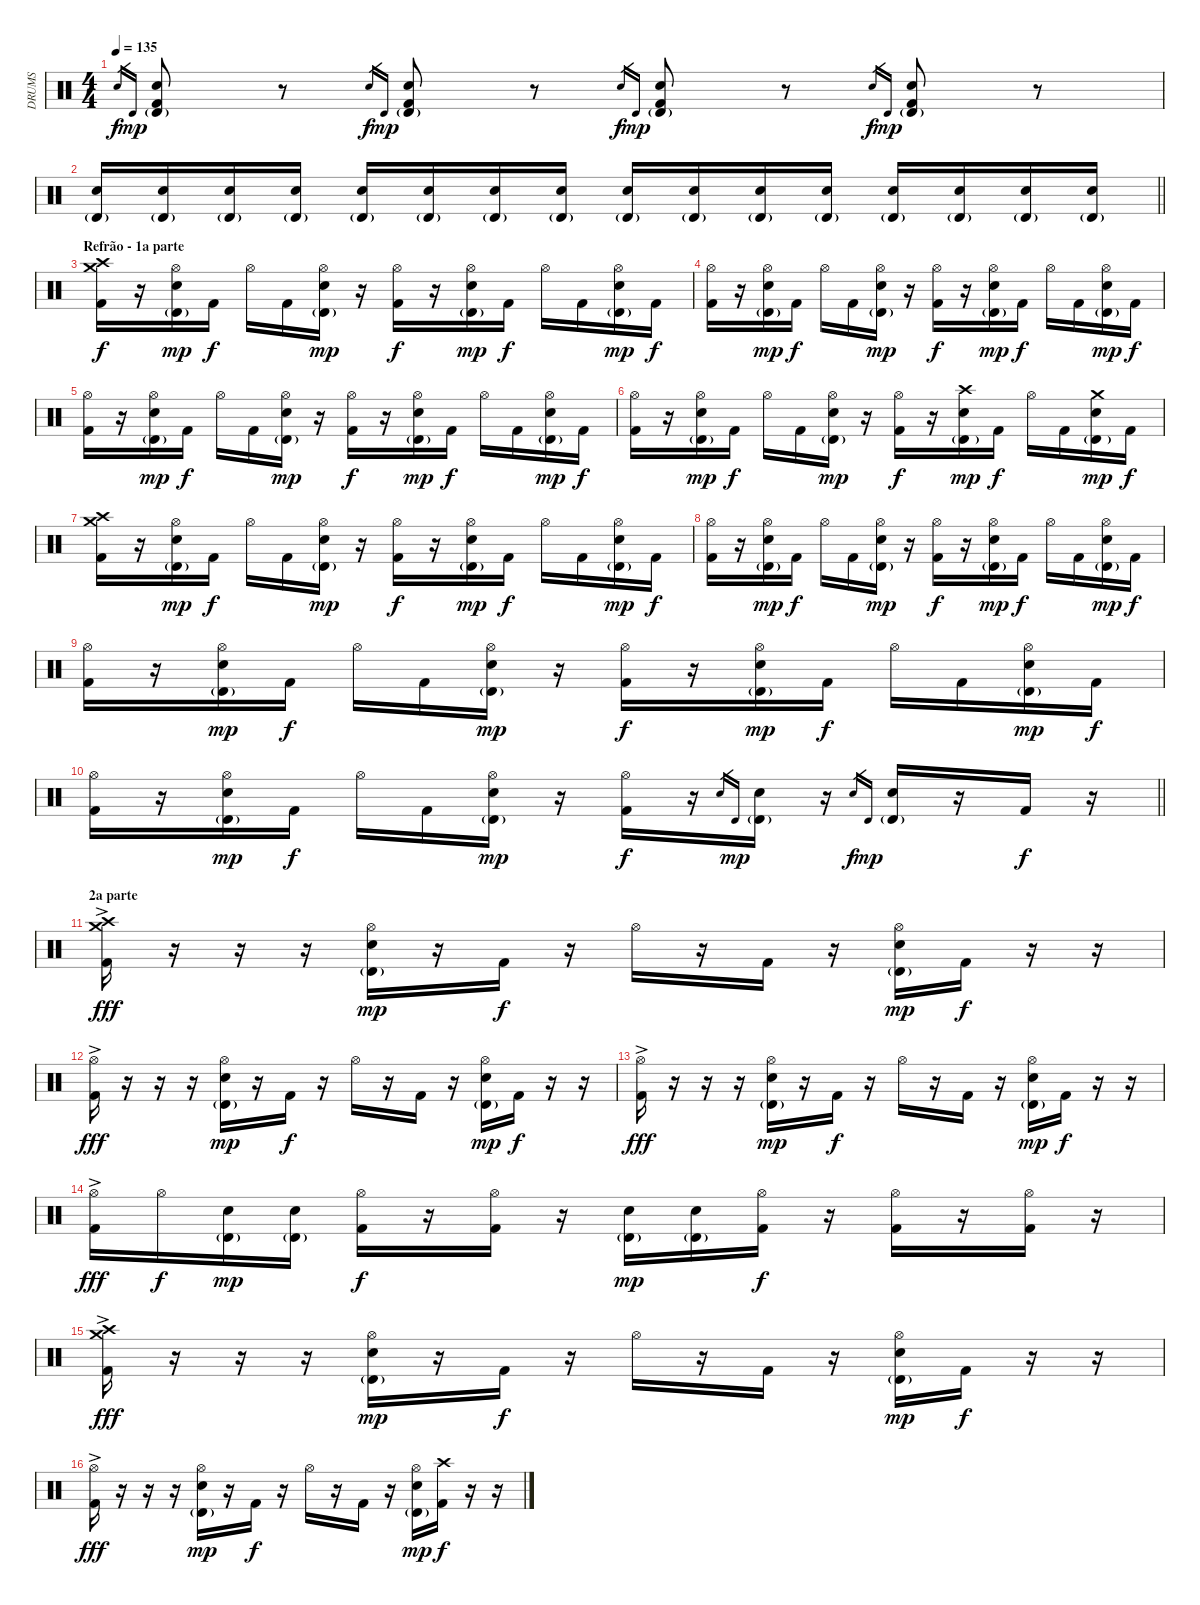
\track ("DRUMS" "DRUMS") {instrument percussion}
\staff {score}
\articulation defaults
\ts (4 4)
\tempo 135
\clef neutral
\ks c "Electric Snare (hit)".16{gr dy f} "Timbale high (hit)".16{gr dy mp}
("Electric Snare (hit)" "Timbale high (hit)"{g} "Kick (hit) 2").8 r.8 "Electric Snare (hit)".16{gr dy f} "Timbale high (hit)".16{gr dy mp} ("Electric Snare (hit)" "Timbale high (hit)"{g} "Kick (hit) 2").8 r.8 "Electric Snare (hit)".16{gr dy f} "Timbale high (hit)".16{gr dy mp} ("Electric Snare (hit)" "Timbale high (hit)"{g} "Kick (hit) 2").8 r.8 "Electric Snare (hit)".16{gr dy f} "Timbale high (hit)".16{gr dy mp} ("Electric Snare (hit)" "Timbale high (hit)"{g} "Kick (hit) 2").8 r.8 |
\barLineRight lightlight
("Electric Snare (hit)" "Timbale high (hit)"{g}).16 ("Electric Snare (hit)" "Timbale high (hit)"{g}).16 ("Electric Snare (hit)" "Timbale high (hit)"{g}).16 ("Electric Snare (hit)" "Timbale high (hit)"{g}).16 ("Electric Snare (hit)" "Timbale high (hit)"{g}).16 ("Electric Snare (hit)" "Timbale high (hit)"{g}).16 ("Electric Snare (hit)" "Timbale high (hit)"{g}).16 ("Electric Snare (hit)" "Timbale high (hit)"{g}).16 ("Electric Snare (hit)" "Timbale high (hit)"{g}).16 ("Electric Snare (hit)" "Timbale high (hit)"{g}).16 ("Electric Snare (hit)" "Timbale high (hit)"{g}).16 ("Electric Snare (hit)" "Timbale high (hit)"{g}).16 ("Electric Snare (hit)" "Timbale high (hit)"{g}).16 ("Electric Snare (hit)" "Timbale high (hit)"{g}).16 ("Electric Snare (hit)" "Timbale high (hit)"{g}).16 ("Electric Snare (hit)" "Timbale high (hit)"{g}).16 |
\section ("" "Refrão - 1a parte")
("Crash high (hit)" "Crash medium (hit)" "Kick (hit) 2").16{dy f} r.16 ("Hi-Hat (open)" "Electric Snare (hit)" "Timbale high (hit)"{g}).16{dy mp} "Kick (hit) 2".16{dy f} "Hi-Hat (open)".16 "Kick (hit) 2".16 ("Hi-Hat (open)" "Electric Snare (hit)" "Timbale high (hit)"{g}).16{dy mp} r.16 ("Hi-Hat (open)" "Kick (hit) 2").16{dy f} r.16 ("Hi-Hat (open)" "Electric Snare (hit)" "Timbale high (hit)"{g}).16{dy mp} "Kick (hit) 2".16{dy f} "Hi-Hat (open)".16 "Kick (hit) 2".16 ("Hi-Hat (open)" "Electric Snare (hit)" "Timbale high (hit)"{g}).16{dy mp} "Kick (hit) 2".16{dy f} |
("Hi-Hat (open)" "Kick (hit) 2").16 r.16 ("Hi-Hat (open)" "Electric Snare (hit)" "Timbale high (hit)"{g}).16{dy mp} "Kick (hit) 2".16{dy f} "Hi-Hat (open)".16 "Kick (hit) 2".16 ("Hi-Hat (open)" "Electric Snare (hit)" "Timbale high (hit)"{g}).16{dy mp} r.16 ("Hi-Hat (open)" "Kick (hit) 2").16{dy f} r.16 ("Hi-Hat (open)" "Electric Snare (hit)" "Timbale high (hit)"{g}).16{dy mp} "Kick (hit) 2".16{dy f} "Hi-Hat (open)".16 "Kick (hit) 2".16 ("Hi-Hat (open)" "Electric Snare (hit)" "Timbale high (hit)"{g}).16{dy mp} "Kick (hit) 2".16{dy f} |
("Hi-Hat (open)" "Kick (hit) 2").16 r.16 ("Hi-Hat (open)" "Electric Snare (hit)" "Timbale high (hit)"{g}).16{dy mp} "Kick (hit) 2".16{dy f} "Hi-Hat (open)".16 "Kick (hit) 2".16 ("Hi-Hat (open)" "Electric Snare (hit)" "Timbale high (hit)"{g}).16{dy mp} r.16 ("Hi-Hat (open)" "Kick (hit) 2").16{dy f} r.16 ("Hi-Hat (open)" "Electric Snare (hit)" "Timbale high (hit)"{g}).16{dy mp} "Kick (hit) 2".16{dy f} "Hi-Hat (open)".16 "Kick (hit) 2".16 ("Hi-Hat (open)" "Electric Snare (hit)" "Timbale high (hit)"{g}).16{dy mp} "Kick (hit) 2".16{dy f} |
("Hi-Hat (open)" "Kick (hit) 2").16 r.16 ("Hi-Hat (open)" "Electric Snare (hit)" "Timbale high (hit)"{g}).16{dy mp} "Kick (hit) 2".16{dy f} "Hi-Hat (open)".16 "Kick (hit) 2".16 ("Hi-Hat (open)" "Electric Snare (hit)" "Timbale high (hit)"{g}).16{dy mp} r.16 ("Hi-Hat (open)" "Kick (hit) 2").16{dy f} r.16 ("Crash high (hit)" "Electric Snare (hit)" "Timbale high (hit)"{g}).16{dy mp} "Kick (hit) 2".16{dy f} "Hi-Hat (open)".16 "Kick (hit) 2".16 ("Crash medium (hit)" "Electric Snare (hit)" "Timbale high (hit)"{g}).16{dy mp} "Kick (hit) 2".16{dy f} |
("Crash high (hit)" "Crash medium (hit)" "Kick (hit) 2").16 r.16 ("Hi-Hat (open)" "Electric Snare (hit)" "Timbale high (hit)"{g}).16{dy mp} "Kick (hit) 2".16{dy f} "Hi-Hat (open)".16 "Kick (hit) 2".16 ("Hi-Hat (open)" "Electric Snare (hit)" "Timbale high (hit)"{g}).16{dy mp} r.16 ("Hi-Hat (open)" "Kick (hit) 2").16{dy f} r.16 ("Hi-Hat (open)" "Electric Snare (hit)" "Timbale high (hit)"{g}).16{dy mp} "Kick (hit) 2".16{dy f} "Hi-Hat (open)".16 "Kick (hit) 2".16 ("Hi-Hat (open)" "Electric Snare (hit)" "Timbale high (hit)"{g}).16{dy mp} "Kick (hit) 2".16{dy f} |
("Hi-Hat (open)" "Kick (hit) 2").16 r.16 ("Hi-Hat (open)" "Electric Snare (hit)" "Timbale high (hit)"{g}).16{dy mp} "Kick (hit) 2".16{dy f} "Hi-Hat (open)".16 "Kick (hit) 2".16 ("Hi-Hat (open)" "Electric Snare (hit)" "Timbale high (hit)"{g}).16{dy mp} r.16 ("Hi-Hat (open)" "Kick (hit) 2").16{dy f} r.16 ("Hi-Hat (open)" "Electric Snare (hit)" "Timbale high (hit)"{g}).16{dy mp} "Kick (hit) 2".16{dy f} "Hi-Hat (open)".16 "Kick (hit) 2".16 ("Hi-Hat (open)" "Electric Snare (hit)" "Timbale high (hit)"{g}).16{dy mp} "Kick (hit) 2".16{dy f} |
("Hi-Hat (open)" "Kick (hit) 2").16 r.16 ("Hi-Hat (open)" "Electric Snare (hit)" "Timbale high (hit)"{g}).16{dy mp} "Kick (hit) 2".16{dy f} "Hi-Hat (open)".16 "Kick (hit) 2".16 ("Hi-Hat (open)" "Electric Snare (hit)" "Timbale high (hit)"{g}).16{dy mp} r.16 ("Hi-Hat (open)" "Kick (hit) 2").16{dy f} r.16 ("Hi-Hat (open)" "Electric Snare (hit)" "Timbale high (hit)"{g}).16{dy mp} "Kick (hit) 2".16{dy f} "Hi-Hat (open)".16 "Kick (hit) 2".16 ("Hi-Hat (open)" "Electric Snare (hit)" "Timbale high (hit)"{g}).16{dy mp} "Kick (hit) 2".16{dy f} |
\barLineRight lightlight
("Hi-Hat (open)" "Kick (hit) 2").16 r.16 ("Hi-Hat (open)" "Electric Snare (hit)" "Timbale high (hit)"{g}).16{dy mp} "Kick (hit) 2".16{dy f} "Hi-Hat (open)".16 "Kick (hit) 2".16 ("Hi-Hat (open)" "Electric Snare (hit)" "Timbale high (hit)"{g}).16{dy mp} r.16 ("Hi-Hat (open)" "Kick (hit) 2").16{dy f} r.16 "Electric Snare (hit)".16{gr} "Timbale high (hit)".16{gr dy mp} ("Electric Snare (hit)" "Timbale high (hit)"{g}).16 r.16 "Electric Snare (hit)".16{gr dy f} "Timbale high (hit)".16{gr dy mp} ("Electric Snare (hit)" "Timbale high (hit)"{g}).16 r.16 "Kick (hit) 2".16{dy f} r.16 |
\section ("" "2a parte")
("Crash high (hit)" "Crash medium (hit)" "Kick (hit) 2"{ac}).16{dy fff} r.16 r.16 r.16 ("Hi-Hat (open)" "Electric Snare (hit)" "Timbale high (hit)"{g}).16{dy mp} r.16 "Kick (hit) 2".16{dy f} r.16 "Hi-Hat (open)".16 r.16 "Kick (hit) 2".16 r.16 ("Hi-Hat (open)" "Electric Snare (hit)" "Timbale high (hit)"{g}).16{dy mp} "Kick (hit) 2".16{dy f} r.16 r.16 |
("Hi-Hat (open)" "Kick (hit) 2"{ac}).16{dy fff} r.16 r.16 r.16 ("Hi-Hat (open)" "Electric Snare (hit)" "Timbale high (hit)"{g}).16{dy mp} r.16 "Kick (hit) 2".16{dy f} r.16 "Hi-Hat (open)".16 r.16 "Kick (hit) 2".16 r.16 ("Hi-Hat (open)" "Electric Snare (hit)" "Timbale high (hit)"{g}).16{dy mp} "Kick (hit) 2".16{dy f} r.16 r.16 |
("Hi-Hat (open)" "Kick (hit) 2"{ac}).16{dy fff} r.16 r.16 r.16 ("Hi-Hat (open)" "Electric Snare (hit)" "Timbale high (hit)"{g}).16{dy mp} r.16 "Kick (hit) 2".16{dy f} r.16 "Hi-Hat (open)".16 r.16 "Kick (hit) 2".16 r.16 ("Hi-Hat (open)" "Electric Snare (hit)" "Timbale high (hit)"{g}).16{dy mp} "Kick (hit) 2".16{dy f} r.16 r.16 |
("Hi-Hat (open)" "Kick (hit) 2"{ac}).16{dy fff} "Hi-Hat (open)".16{dy f} ("Electric Snare (hit)" "Timbale high (hit)"{g}).16{dy mp} ("Electric Snare (hit)" "Timbale high (hit)"{g}).16 ("Hi-Hat (open)" "Kick (hit) 2").16{dy f} r.16 ("Hi-Hat (open)" "Kick (hit) 2").16 r.16 ("Electric Snare (hit)" "Timbale high (hit)"{g}).16{dy mp} ("Electric Snare (hit)" "Timbale high (hit)"{g}).16 ("Hi-Hat (open)" "Kick (hit) 2").16{dy f} r.16 ("Hi-Hat (open)" "Kick (hit) 2").16 r.16 ("Hi-Hat (open)" "Kick (hit) 2").16 r.16 |
("Crash high (hit)" "Crash medium (hit)" "Kick (hit) 2"{ac}).16{dy fff} r.16 r.16 r.16 ("Hi-Hat (open)" "Electric Snare (hit)" "Timbale high (hit)"{g}).16{dy mp} r.16 "Kick (hit) 2".16{dy f} r.16 "Hi-Hat (open)".16 r.16 "Kick (hit) 2".16 r.16 ("Hi-Hat (open)" "Electric Snare (hit)" "Timbale high (hit)"{g}).16{dy mp} "Kick (hit) 2".16{dy f} r.16 r.16 |
("Hi-Hat (open)" "Kick (hit) 2"{ac}).16{dy fff} r.16 r.16 r.16 ("Hi-Hat (open)" "Electric Snare (hit)" "Timbale high (hit)"{g}).16{dy mp} r.16 "Kick (hit) 2".16{dy f} r.16 "Hi-Hat (open)".16 r.16 "Kick (hit) 2".16 r.16 ("Hi-Hat (open)" "Electric Snare (hit)" "Timbale high (hit)"{g}).16{dy mp} ("Crash high (hit)" "Kick (hit) 2").16{dy f} r.16 r.16
